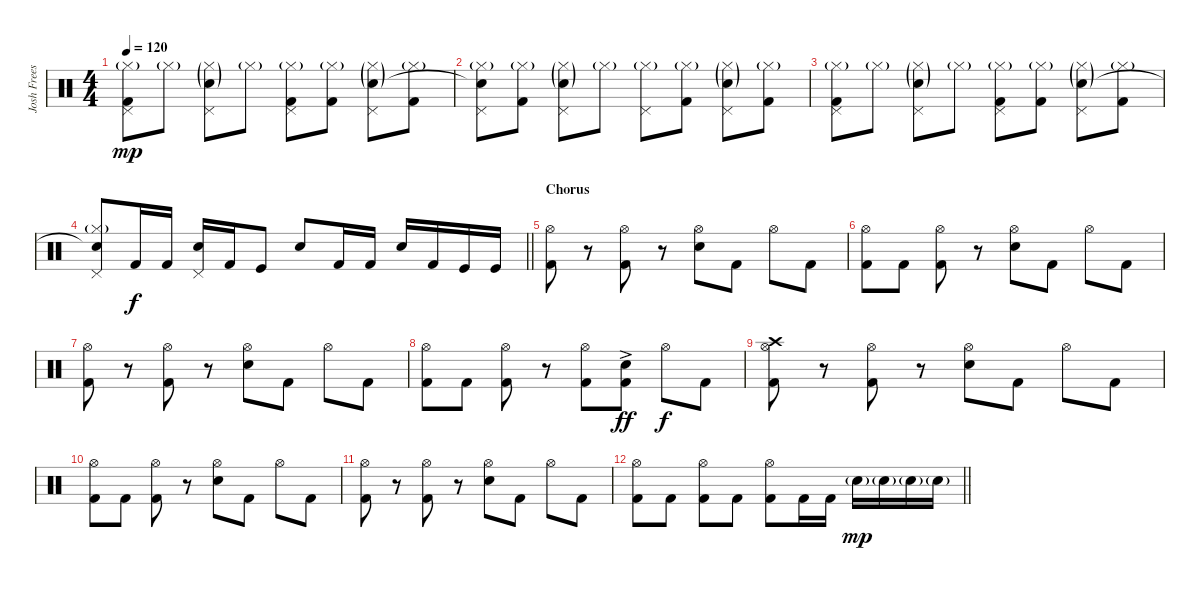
\track ("Josh Freese (Drums)" "Josh Frees") {instrument percussion}
\staff {score}
\articulation defaults
\ts (4 4)
\tempo 120
\clef neutral
\ks c
("Pedal Hi-Hat (hit)" "Hi-Hat (closed)"{g} "Kick (hit) 2").8{dy mp} "Hi-Hat (closed)"{g}.8 ("Pedal Hi-Hat (hit)" "Hi-Hat (closed)"{g} "Snare (hit) 2"{g}).8 "Hi-Hat (closed)"{g}.8 ("Pedal Hi-Hat (hit)" "Hi-Hat (closed)"{g} "Kick (hit) 2").8 ("Hi-Hat (closed)"{g} "Kick (hit) 2").8 ("Pedal Hi-Hat (hit)" "Hi-Hat (closed)"{g} "Snare (hit) 2"{g}).8 ("Hi-Hat (closed)"{g} "Kick (hit) 2").8 |
("Pedal Hi-Hat (hit)" "Hi-Hat (closed)"{g} "Snare (hit)"{t}).8 ("Hi-Hat (closed)"{g} "Kick (hit) 2").8 ("Pedal Hi-Hat (hit)" "Hi-Hat (closed)"{g} "Snare (hit) 2"{g}).8 "Hi-Hat (closed)"{g}.8 ("Pedal Hi-Hat (hit)" "Hi-Hat (closed)"{g}).8 ("Hi-Hat (closed)"{g} "Kick (hit) 2").8 ("Pedal Hi-Hat (hit)" "Hi-Hat (closed)"{g} "Snare (hit) 2"{g}).8 ("Hi-Hat (closed)"{g} "Kick (hit) 2").8 |
("Pedal Hi-Hat (hit)" "Hi-Hat (closed)"{g} "Kick (hit) 2").8 "Hi-Hat (closed)"{g}.8 ("Pedal Hi-Hat (hit)" "Hi-Hat (closed)"{g} "Snare (hit) 2"{g}).8 "Hi-Hat (closed)"{g}.8 ("Pedal Hi-Hat (hit)" "Hi-Hat (closed)"{g} "Kick (hit) 2").8 ("Hi-Hat (closed)"{g} "Kick (hit) 2").8 ("Pedal Hi-Hat (hit)" "Hi-Hat (closed)"{g} "Snare (hit) 2"{g}).8 ("Hi-Hat (closed)"{g} "Kick (hit) 2").8 |
\barLineRight lightlight
("Pedal Hi-Hat (hit)" "Hi-Hat (closed)"{g} "Snare (hit)"{t}).8 "Kick (hit) 2".16{dy f} "Kick (hit) 2".16 ("Pedal Hi-Hat (hit)" "Electric Snare (hit)").16 "Kick (hit) 2".16 "Kick (hit)".8 "Electric Snare (hit)".8 "Kick (hit) 2".16 "Kick (hit) 2".16 "Electric Snare (hit)".16 "Kick (hit) 2".16 "Kick (hit)".16 "Kick (hit)".16 |
\section ("" "Chorus")
("Hi-Hat (open)" "Kick (hit) 2").8 r.8 ("Hi-Hat (open)" "Kick (hit) 2").8 r.8 ("Hi-Hat (open)" "Snare (hit) 2").8 "Kick (hit) 2".8 "Hi-Hat (open)".8 "Kick (hit) 2".8 |
("Hi-Hat (open)" "Kick (hit) 2").8 "Kick (hit) 2".8 ("Hi-Hat (open)" "Kick (hit) 2").8 r.8 ("Hi-Hat (open)" "Snare (hit) 2").8 "Kick (hit) 2".8 "Hi-Hat (open)".8 "Kick (hit) 2".8 |
("Hi-Hat (open)" "Kick (hit) 2").8 r.8 ("Hi-Hat (open)" "Kick (hit) 2").8 r.8 ("Hi-Hat (open)" "Snare (hit) 2").8 "Kick (hit) 2".8 "Hi-Hat (open)".8 "Kick (hit) 2".8 |
("Hi-Hat (open)" "Kick (hit) 2").8 "Kick (hit) 2".8 ("Hi-Hat (open)" "Kick (hit) 2").8 r.8 ("Hi-Hat (open)" "Kick (hit) 2").8 ("Snare (hit) 2"{ac} "Kick (hit) 2").8{dy ff} "Hi-Hat (open)".8{dy f} "Kick (hit) 2".8 |
("Crash high (hit)" "Hi-Hat (open)" "Kick (hit) 2").8 r.8 ("Hi-Hat (open)" "Kick (hit) 2").8 r.8 ("Hi-Hat (open)" "Snare (hit) 2").8 "Kick (hit) 2".8 "Hi-Hat (open)".8 "Kick (hit) 2".8 |
("Hi-Hat (open)" "Kick (hit) 2").8 "Kick (hit) 2".8 ("Hi-Hat (open)" "Kick (hit) 2").8 r.8 ("Hi-Hat (open)" "Snare (hit) 2").8 "Kick (hit) 2".8 "Hi-Hat (open)".8 "Kick (hit) 2".8 |
("Hi-Hat (open)" "Kick (hit) 2").8 r.8 ("Hi-Hat (open)" "Kick (hit) 2").8 r.8 ("Hi-Hat (open)" "Snare (hit) 2").8 "Kick (hit) 2".8 "Hi-Hat (open)".8 "Kick (hit) 2".8 |
\barLineRight lightlight
("Hi-Hat (open)" "Kick (hit) 2").8 "Kick (hit) 2".8 ("Hi-Hat (open)" "Kick (hit) 2").8 "Kick (hit) 2".8 ("Hi-Hat (open)" "Kick (hit) 2").8 "Kick (hit) 2".16 "Kick (hit) 2".16 "Snare (hit) 2"{g}.16{dy mp} "Snare (hit) 2"{g}.16 "Electric Snare (hit)"{g}.16 "Electric Snare (hit)"{g}.16
